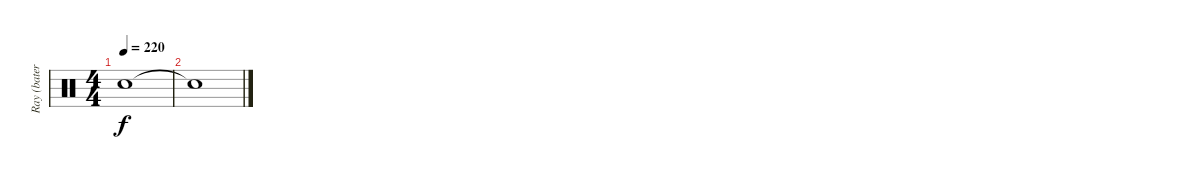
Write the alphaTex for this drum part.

\track ("Ray (batería)" "Ray (bater") {instrument percussion}
\staff {score}
\articulation defaults
\ts (4 4)
\tempo 220
\clef neutral
\ks c "Snare (hit)"{t}.1{dy f}
|
"Snare (hit)"{t}.1
